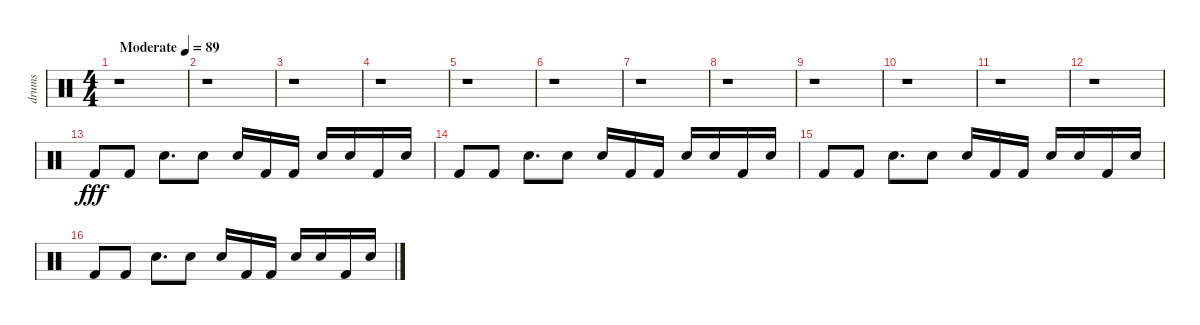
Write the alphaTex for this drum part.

\track ("drums" "drums") {instrument percussion}
\staff {score}
\articulation defaults
\ts (4 4)
\tempo (89 "Moderate")
\clef neutral
\ks c
r.1{dy fff} |
r.1 |
r.1 |
r.1 |
r.1 |
r.1 |
r.1 |
r.1 |
r.1 |
r.1 |
r.1 |
r.1 |
"Kick (hit) 2".8 "Kick (hit) 2".8 "Electric Snare (hit)".8{d} "Electric Snare (hit)".8 "Electric Snare (hit)".16 "Kick (hit) 2".16 "Kick (hit) 2".16 "Electric Snare (hit)".16 "Electric Snare (hit)".16 "Kick (hit) 2".16 "Electric Snare (hit)".16 |
"Kick (hit) 2".8 "Kick (hit) 2".8 "Electric Snare (hit)".8{d} "Electric Snare (hit)".8 "Electric Snare (hit)".16 "Kick (hit) 2".16 "Kick (hit) 2".16 "Electric Snare (hit)".16 "Electric Snare (hit)".16 "Kick (hit) 2".16 "Electric Snare (hit)".16 |
"Kick (hit) 2".8 "Kick (hit) 2".8 "Electric Snare (hit)".8{d} "Electric Snare (hit)".8 "Electric Snare (hit)".16 "Kick (hit) 2".16 "Kick (hit) 2".16 "Electric Snare (hit)".16 "Electric Snare (hit)".16 "Kick (hit) 2".16 "Electric Snare (hit)".16 |
"Kick (hit) 2".8 "Kick (hit) 2".8 "Electric Snare (hit)".8{d} "Electric Snare (hit)".8 "Electric Snare (hit)".16 "Kick (hit) 2".16 "Kick (hit) 2".16 "Electric Snare (hit)".16 "Electric Snare (hit)".16 "Kick (hit) 2".16 "Electric Snare (hit)".16
